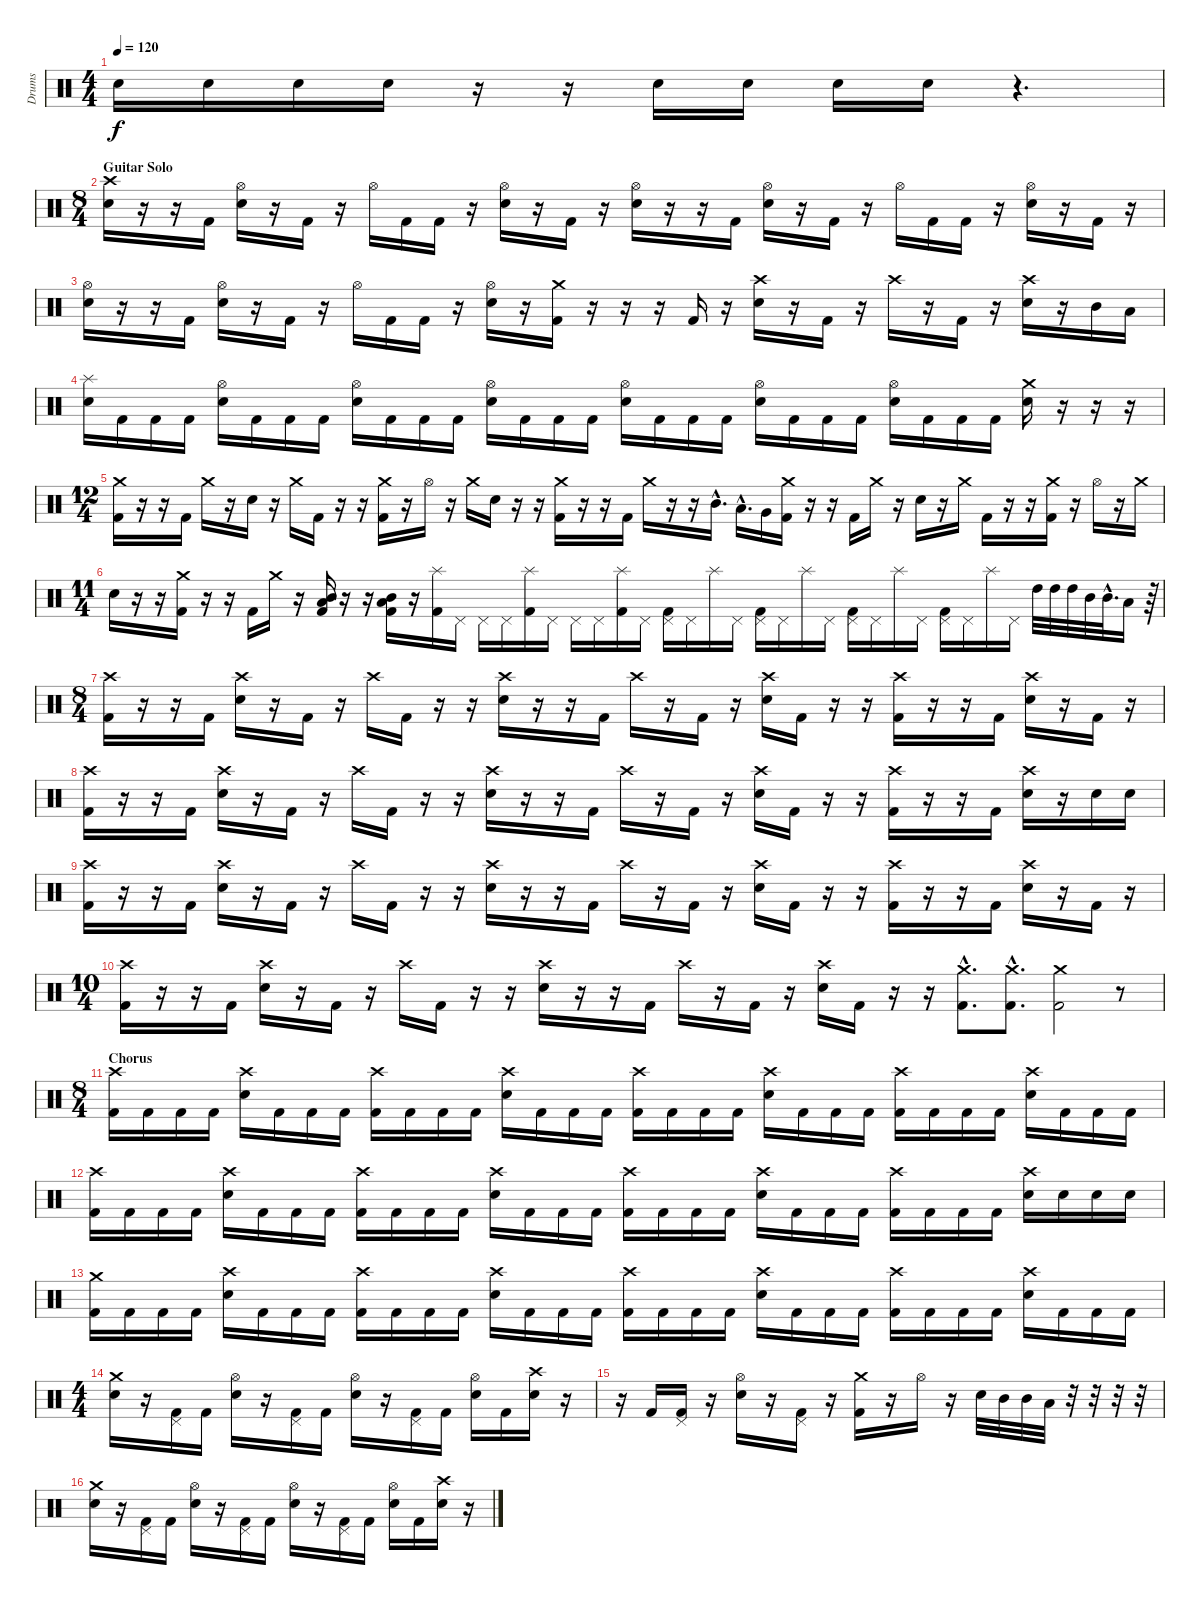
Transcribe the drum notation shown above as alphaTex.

\track ("Drums" "Drums") {instrument percussion}
\staff {score}
\articulation defaults
\ts (4 4)
\tempo 120
\clef neutral
\ks c "Electric Snare (hit)".16{dy f} "Electric Snare (hit)".16 "Electric Snare (hit)".16 "Electric Snare (hit)".16
r.16 r.16 "Electric Snare (hit)".16 "Electric Snare (hit)".16 "Electric Snare (hit)".16 "Electric Snare (hit)".16 r.4{d} |
\ts (8 4)
\section ("" "Guitar Solo")
("Crash high (hit)" "Electric Snare (hit)").16 r.16 r.16 "Kick (hit) 2".16 ("Hi-Hat (open)" "Electric Snare (hit)").16 r.16 "Kick (hit) 2".16 r.16 "Hi-Hat (open)".16 "Kick (hit) 2".16 "Kick (hit) 2".16 r.16 ("Hi-Hat (open)" "Electric Snare (hit)").16 r.16 "Kick (hit) 2".16 r.16 ("Hi-Hat (open)" "Electric Snare (hit)").16 r.16 r.16 "Kick (hit) 2".16 ("Hi-Hat (open)" "Electric Snare (hit)").16 r.16 "Kick (hit) 2".16 r.16 "Hi-Hat (open)".16 "Kick (hit) 2".16 "Kick (hit) 2".16 r.16 ("Hi-Hat (open)" "Electric Snare (hit)").16 r.16 "Kick (hit) 2".16 r.16 |
("Hi-Hat (open)" "Electric Snare (hit)").16 r.16 r.16 "Kick (hit) 2".16 ("Hi-Hat (open)" "Electric Snare (hit)").16 r.16 "Kick (hit) 2".16 r.16 "Hi-Hat (open)".16 "Kick (hit) 2".16 "Kick (hit) 2".16 r.16 ("Hi-Hat (open)" "Electric Snare (hit)").16 r.16 ("Crash medium (hit)" "Kick (hit) 2").16 r.16 r.16 r.16 "Kick (hit) 2".16 r.16 ("Crash high (hit)" "Electric Snare (hit)").16 r.16 "Kick (hit) 2".16 r.16 "Crash high (hit)".16 r.16 "Kick (hit) 2".16 r.16 ("Crash high (hit)" "Electric Snare (hit)").16 r.16 "Mid Tom (hit)".16 "Low Tom (hit)".16 |
("Splash (hit)" "Electric Snare (hit)").16 "Kick (hit) 2".16 "Kick (hit) 2".16 "Kick (hit) 2".16 ("Hi-Hat (open)" "Electric Snare (hit)").16 "Kick (hit) 2".16 "Kick (hit) 2".16 "Kick (hit) 2".16 ("Hi-Hat (open)" "Electric Snare (hit)").16 "Kick (hit) 2".16 "Kick (hit) 2".16 "Kick (hit) 2".16 ("Hi-Hat (open)" "Electric Snare (hit)").16 "Kick (hit) 2".16 "Kick (hit) 2".16 "Kick (hit) 2".16 ("Hi-Hat (open)" "Electric Snare (hit)").16 "Kick (hit) 2".16 "Kick (hit) 2".16 "Kick (hit) 2".16 ("Hi-Hat (open)" "Electric Snare (hit)").16 "Kick (hit) 2".16 "Kick (hit) 2".16 "Kick (hit) 2".16 ("Hi-Hat (open)" "Electric Snare (hit)").16 "Kick (hit) 2".16 "Kick (hit) 2".16 "Kick (hit) 2".16 ("Crash medium (hit)" "Electric Snare (hit)").16 r.16 r.16 r.16 |
\ts (12 4)
("Crash medium (hit)" "Kick (hit) 2").16 r.16 r.16 "Kick (hit) 2".16 "Crash medium (hit)".16 r.16 "Electric Snare (hit)".16 r.16 "Crash medium (hit)".16 "Kick (hit) 2".16 r.16 r.16 ("Crash medium (hit)" "Kick (hit) 2").16 r.16 "Hi-Hat (open)".16 r.16 "Crash medium (hit)".16 "Electric Snare (hit)".16 r.16 r.16 ("Crash medium (hit)" "Kick (hit) 2").16 r.16 r.16 "Kick (hit) 2".16 "Crash medium (hit)".16 r.16 r.16 "Mid Tom (hit)"{hac}.16{d} "Low Tom (hit)"{hac}.16{d} "Very Low Tom (hit)".16 ("Crash medium (hit)" "Kick (hit) 2").16 r.16 r.16 "Kick (hit) 2".16 "Crash medium (hit)".16 r.16 "Electric Snare (hit)".16 r.16 "Crash medium (hit)".16 "Kick (hit) 2".16 r.16 r.16 ("Crash medium (hit)" "Kick (hit) 2").16 r.16 "Hi-Hat (open)".16 r.16 "Crash medium (hit)".16 |
\ts (11 4)
"Electric Snare (hit)".16 r.16 r.16 ("Crash medium (hit)" "Kick (hit) 2").16 r.16 r.16 "Kick (hit) 2".16 "Crash medium (hit)".16 r.16 ("Mid Tom (hit)" "Low Tom (hit)" "Kick (hit) 2").16 r.16 r.16 ("Mid Tom (hit)" "Low Tom (hit)" "Kick (hit) 2").16 r.16 ("Splash (hit)" "Kick (hit) 2").16 "Pedal Hi-Hat (hit)".16 "Pedal Hi-Hat (hit)".16 "Pedal Hi-Hat (hit)".16 ("Splash (hit)" "Kick (hit) 2").16 "Pedal Hi-Hat (hit)".16 "Pedal Hi-Hat (hit)".16 "Pedal Hi-Hat (hit)".16 ("Splash (hit)" "Kick (hit) 2").16 "Pedal Hi-Hat (hit)".16 ("Pedal Hi-Hat (hit)" "Kick (hit) 2").16 "Pedal Hi-Hat (hit)".16 "Splash (hit)".16 "Pedal Hi-Hat (hit)".16 ("Pedal Hi-Hat (hit)" "Kick (hit) 2").16 "Pedal Hi-Hat (hit)".16 "Splash (hit)".16 "Pedal Hi-Hat (hit)".16 ("Pedal Hi-Hat (hit)" "Kick (hit) 2").16 "Pedal Hi-Hat (hit)".16 "Splash (hit)".16 "Pedal Hi-Hat (hit)".16 ("Pedal Hi-Hat (hit)" "Kick (hit) 2").16 "Pedal Hi-Hat (hit)".16 "Splash (hit)".16 "Pedal Hi-Hat (hit)".16 "High Tom (hit)".32 "High Tom (hit)".32 "High Tom (hit)".32 "Mid Tom (hit)".32 "Mid Tom (hit)"{hac}.32{d} "Low Tom (hit)".16 r.64 |
\ts (8 4)
("Crash high (hit)" "Kick (hit) 2").16 r.16 r.16 "Kick (hit) 2".16 ("Crash high (hit)" "Electric Snare (hit)").16 r.16 "Kick (hit) 2".16 r.16 "Crash high (hit)".16 "Kick (hit) 2".16 r.16 r.16 ("Crash high (hit)" "Electric Snare (hit)").16 r.16 r.16 "Kick (hit) 2".16 "Crash high (hit)".16 r.16 "Kick (hit) 2".16 r.16 ("Crash high (hit)" "Electric Snare (hit)").16 "Kick (hit) 2".16 r.16 r.16 ("Crash high (hit)" "Kick (hit) 2").16 r.16 r.16 "Kick (hit) 2".16 ("Crash high (hit)" "Electric Snare (hit)").16 r.16 "Kick (hit) 2".16 r.16 |
("Crash high (hit)" "Kick (hit) 2").16 r.16 r.16 "Kick (hit) 2".16 ("Crash high (hit)" "Electric Snare (hit)").16 r.16 "Kick (hit) 2".16 r.16 "Crash high (hit)".16 "Kick (hit) 2".16 r.16 r.16 ("Crash high (hit)" "Electric Snare (hit)").16 r.16 r.16 "Kick (hit) 2".16 "Crash high (hit)".16 r.16 "Kick (hit) 2".16 r.16 ("Crash high (hit)" "Electric Snare (hit)").16 "Kick (hit) 2".16 r.16 r.16 ("Crash high (hit)" "Kick (hit) 2").16 r.16 r.16 "Kick (hit) 2".16 ("Crash high (hit)" "Electric Snare (hit)").16 r.16 "Electric Snare (hit)".16 "Electric Snare (hit)".16 |
("Crash high (hit)" "Kick (hit) 2").16 r.16 r.16 "Kick (hit) 2".16 ("Crash high (hit)" "Electric Snare (hit)").16 r.16 "Kick (hit) 2".16 r.16 "Crash high (hit)".16 "Kick (hit) 2".16 r.16 r.16 ("Crash high (hit)" "Electric Snare (hit)").16 r.16 r.16 "Kick (hit) 2".16 "Crash high (hit)".16 r.16 "Kick (hit) 2".16 r.16 ("Crash high (hit)" "Electric Snare (hit)").16 "Kick (hit) 2".16 r.16 r.16 ("Crash high (hit)" "Kick (hit) 2").16 r.16 r.16 "Kick (hit) 2".16 ("Crash high (hit)" "Electric Snare (hit)").16 r.16 "Kick (hit) 2".16 r.16 |
\ts (10 4)
("Crash high (hit)" "Kick (hit) 2").16 r.16 r.16 "Kick (hit) 2".16 ("Crash high (hit)" "Electric Snare (hit)").16 r.16 "Kick (hit) 2".16 r.16 "Crash high (hit)".16 "Kick (hit) 2".16 r.16 r.16 ("Crash high (hit)" "Electric Snare (hit)").16 r.16 r.16 "Kick (hit) 2".16 "Crash high (hit)".16 r.16 "Kick (hit) 2".16 r.16 ("Crash high (hit)" "Electric Snare (hit)").16 "Kick (hit) 2".16 r.16 r.16 ("Crash medium (hit)"{hac} "Kick (hit) 2"{hac}).8{d} ("Crash medium (hit)"{hac} "Kick (hit) 2"{hac}).8{d} ("Crash medium (hit)" "Kick (hit) 2").2 r.8 |
\ts (8 4)
\section ("" "Chorus")
("Crash high (hit)" "Kick (hit) 2").16 "Kick (hit) 2".16 "Kick (hit) 2".16 "Kick (hit) 2".16 ("Crash high (hit)" "Electric Snare (hit)").16 "Kick (hit) 2".16 "Kick (hit) 2".16 "Kick (hit) 2".16 ("Crash high (hit)" "Kick (hit) 2").16 "Kick (hit) 2".16 "Kick (hit) 2".16 "Kick (hit) 2".16 ("Crash high (hit)" "Electric Snare (hit)").16 "Kick (hit) 2".16 "Kick (hit) 2".16 "Kick (hit) 2".16 ("Crash high (hit)" "Kick (hit) 2").16 "Kick (hit) 2".16 "Kick (hit) 2".16 "Kick (hit) 2".16 ("Crash high (hit)" "Electric Snare (hit)").16 "Kick (hit) 2".16 "Kick (hit) 2".16 "Kick (hit) 2".16 ("Crash high (hit)" "Kick (hit) 2").16 "Kick (hit) 2".16 "Kick (hit) 2".16 "Kick (hit) 2".16 ("Crash high (hit)" "Electric Snare (hit)").16 "Kick (hit) 2".16 "Kick (hit) 2".16 "Kick (hit) 2".16 |
("Crash high (hit)" "Kick (hit) 2").16 "Kick (hit) 2".16 "Kick (hit) 2".16 "Kick (hit) 2".16 ("Crash high (hit)" "Electric Snare (hit)").16 "Kick (hit) 2".16 "Kick (hit) 2".16 "Kick (hit) 2".16 ("Crash high (hit)" "Kick (hit) 2").16 "Kick (hit) 2".16 "Kick (hit) 2".16 "Kick (hit) 2".16 ("Crash high (hit)" "Electric Snare (hit)").16 "Kick (hit) 2".16 "Kick (hit) 2".16 "Kick (hit) 2".16 ("Crash high (hit)" "Kick (hit) 2").16 "Kick (hit) 2".16 "Kick (hit) 2".16 "Kick (hit) 2".16 ("Crash high (hit)" "Electric Snare (hit)").16 "Kick (hit) 2".16 "Kick (hit) 2".16 "Kick (hit) 2".16 ("Crash high (hit)" "Kick (hit) 2").16 "Kick (hit) 2".16 "Kick (hit) 2".16 "Kick (hit) 2".16 ("Crash high (hit)" "Electric Snare (hit)").16 "Electric Snare (hit)".16 "Electric Snare (hit)".16 "Electric Snare (hit)".16 |
("Crash medium (hit)" "Kick (hit) 2").16 "Kick (hit) 2".16 "Kick (hit) 2".16 "Kick (hit) 2".16 ("Crash high (hit)" "Electric Snare (hit)").16 "Kick (hit) 2".16 "Kick (hit) 2".16 "Kick (hit) 2".16 ("Crash high (hit)" "Kick (hit) 2").16 "Kick (hit) 2".16 "Kick (hit) 2".16 "Kick (hit) 2".16 ("Crash high (hit)" "Electric Snare (hit)").16 "Kick (hit) 2".16 "Kick (hit) 2".16 "Kick (hit) 2".16 ("Crash high (hit)" "Kick (hit) 2").16 "Kick (hit) 2".16 "Kick (hit) 2".16 "Kick (hit) 2".16 ("Crash high (hit)" "Electric Snare (hit)").16 "Kick (hit) 2".16 "Kick (hit) 2".16 "Kick (hit) 2".16 ("Crash high (hit)" "Kick (hit) 2").16 "Kick (hit) 2".16 "Kick (hit) 2".16 "Kick (hit) 2".16 ("Crash high (hit)" "Electric Snare (hit)").16 "Kick (hit) 2".16 "Kick (hit) 2".16 "Kick (hit) 2".16 |
\ts (4 4)
("Crash medium (hit)" "Electric Snare (hit)").16 r.16 ("Pedal Hi-Hat (hit)" "Kick (hit) 2").16 "Kick (hit) 2".16 ("Hi-Hat (open)" "Electric Snare (hit)").16 r.16 ("Pedal Hi-Hat (hit)" "Kick (hit) 2").16 "Kick (hit) 2".16 ("Hi-Hat (open)" "Electric Snare (hit)").16 r.16 ("Pedal Hi-Hat (hit)" "Kick (hit) 2").16 "Kick (hit) 2".16 ("Hi-Hat (open)" "Electric Snare (hit)").16 "Kick (hit) 2".16 ("Crash high (hit)" "Electric Snare (hit)").16 r.16 |
r.16 "Kick (hit) 2".16 ("Pedal Hi-Hat (hit)" "Kick (hit) 2").16 r.16 ("Hi-Hat (open)" "Electric Snare (hit)").16 r.16 ("Pedal Hi-Hat (hit)" "Kick (hit) 2").16 r.16 ("Crash medium (hit)" "Kick (hit) 2").16 r.16 "Hi-Hat (open)".16 r.16 "Electric Snare (hit)".32 "Mid Tom (hit)".32 "Mid Tom (hit)".32 "Low Tom (hit)".32 r.32 r.32 r.32 r.32 |
("Crash medium (hit)" "Electric Snare (hit)").16 r.16 ("Pedal Hi-Hat (hit)" "Kick (hit) 2").16 "Kick (hit) 2".16 ("Hi-Hat (open)" "Electric Snare (hit)").16 r.16 ("Pedal Hi-Hat (hit)" "Kick (hit) 2").16 "Kick (hit) 2".16 ("Hi-Hat (open)" "Electric Snare (hit)").16 r.16 ("Pedal Hi-Hat (hit)" "Kick (hit) 2").16 "Kick (hit) 2".16 ("Hi-Hat (open)" "Electric Snare (hit)").16 "Kick (hit) 2".16 ("Crash high (hit)" "Electric Snare (hit)").16 r.16
